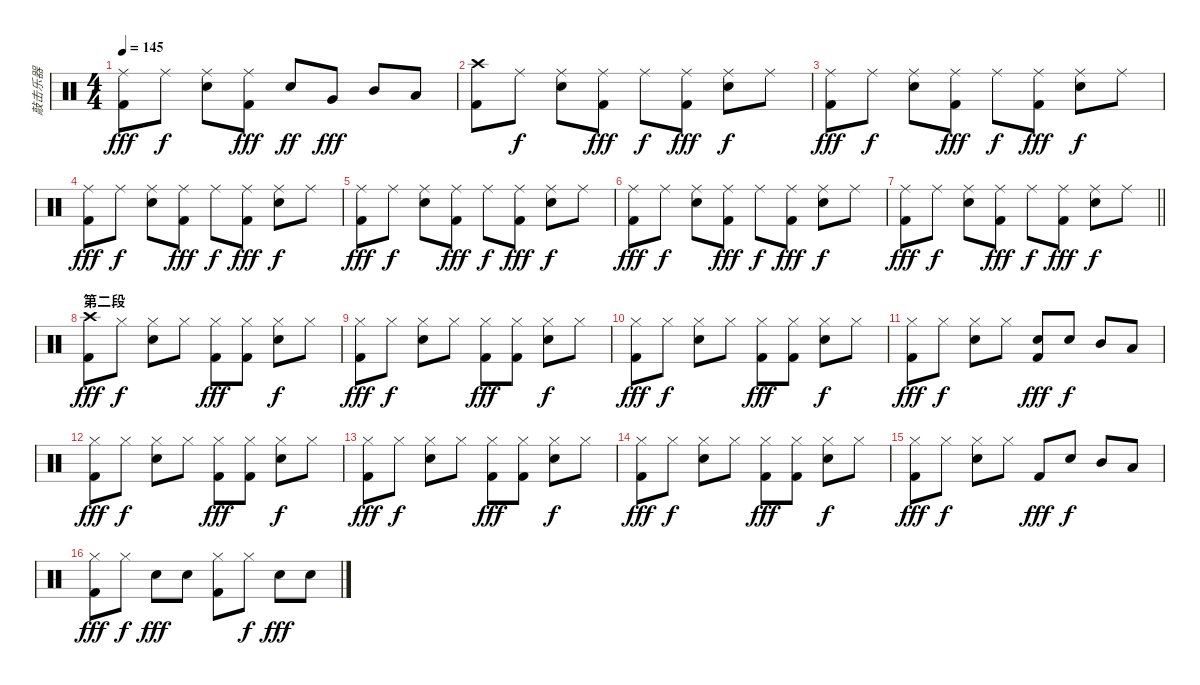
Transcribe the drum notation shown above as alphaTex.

\track ("敲击乐器" "敲击乐器") {instrument percussion}
\staff {score}
\articulation defaults
\ts (4 4)
\tempo 145
\clef neutral
\ks c
("Ride (middle)" "Kick (hit) 2").8{dy fff} "Ride (middle)".8{dy f} ("Ride (middle)" "Electric Snare (hit)").8 ("Ride (middle)" "Kick (hit) 2").8{dy fff} "Electric Snare (hit)".8{dy ff} "Very Low Tom (hit)".8{dy fff} "Mid Tom (hit)".8 "Low Tom (hit)".8 |
("Crash high (hit)" "Kick (hit) 2").8 "Ride (middle)".8{dy f} ("Ride (middle)" "Electric Snare (hit)").8 ("Ride (middle)" "Kick (hit) 2").8{dy fff} "Ride (middle)".8{dy f} ("Ride (middle)" "Kick (hit) 2").8{dy fff} ("Ride (middle)" "Electric Snare (hit)").8{dy f} "Ride (middle)".8 |
("Ride (middle)" "Kick (hit) 2").8{dy fff} "Ride (middle)".8{dy f} ("Ride (middle)" "Electric Snare (hit)").8 ("Ride (middle)" "Kick (hit) 2").8{dy fff} "Ride (middle)".8{dy f} ("Ride (middle)" "Kick (hit) 2").8{dy fff} ("Ride (middle)" "Electric Snare (hit)").8{dy f} "Ride (middle)".8 |
("Ride (middle)" "Kick (hit) 2").8{dy fff} "Ride (middle)".8{dy f} ("Ride (middle)" "Electric Snare (hit)").8 ("Ride (middle)" "Kick (hit) 2").8{dy fff} "Ride (middle)".8{dy f} ("Ride (middle)" "Kick (hit) 2").8{dy fff} ("Ride (middle)" "Electric Snare (hit)").8{dy f} "Ride (middle)".8 |
("Ride (middle)" "Kick (hit) 2").8{dy fff} "Ride (middle)".8{dy f} ("Ride (middle)" "Electric Snare (hit)").8 ("Ride (middle)" "Kick (hit) 2").8{dy fff} "Ride (middle)".8{dy f} ("Ride (middle)" "Kick (hit) 2").8{dy fff} ("Ride (middle)" "Electric Snare (hit)").8{dy f} "Ride (middle)".8 |
("Ride (middle)" "Kick (hit) 2").8{dy fff} "Ride (middle)".8{dy f} ("Ride (middle)" "Electric Snare (hit)").8 ("Ride (middle)" "Kick (hit) 2").8{dy fff} "Ride (middle)".8{dy f} ("Ride (middle)" "Kick (hit) 2").8{dy fff} ("Ride (middle)" "Electric Snare (hit)").8{dy f} "Ride (middle)".8 |
\barLineRight lightlight
("Ride (middle)" "Kick (hit) 2").8{dy fff} "Ride (middle)".8{dy f} ("Ride (middle)" "Electric Snare (hit)").8 ("Ride (middle)" "Kick (hit) 2").8{dy fff} "Ride (middle)".8{dy f} ("Ride (middle)" "Kick (hit) 2").8{dy fff} ("Ride (middle)" "Electric Snare (hit)").8{dy f} "Ride (middle)".8 |
\section ("" "第二段")
("Crash high (hit)" "Kick (hit) 2").8{dy fff} "Hi-Hat (closed)".8{dy f} ("Hi-Hat (closed)" "Electric Snare (hit)").8 "Hi-Hat (closed)".8 ("Hi-Hat (closed)" "Kick (hit) 2").8{dy fff} ("Hi-Hat (closed)" "Kick (hit) 2").8 ("Hi-Hat (closed)" "Electric Snare (hit)").8{dy f} "Hi-Hat (closed)".8 |
("Hi-Hat (closed)" "Kick (hit) 2").8{dy fff} "Hi-Hat (closed)".8{dy f} ("Hi-Hat (closed)" "Electric Snare (hit)").8 "Hi-Hat (closed)".8 ("Hi-Hat (closed)" "Kick (hit) 2").8{dy fff} ("Hi-Hat (closed)" "Kick (hit) 2").8 ("Hi-Hat (closed)" "Electric Snare (hit)").8{dy f} "Hi-Hat (closed)".8 |
("Hi-Hat (closed)" "Kick (hit) 2").8{dy fff} "Hi-Hat (closed)".8{dy f} ("Hi-Hat (closed)" "Electric Snare (hit)").8 "Hi-Hat (closed)".8 ("Hi-Hat (closed)" "Kick (hit) 2").8{dy fff} ("Hi-Hat (closed)" "Kick (hit) 2").8 ("Hi-Hat (closed)" "Electric Snare (hit)").8{dy f} "Hi-Hat (closed)".8 |
("Hi-Hat (closed)" "Kick (hit) 2").8{dy fff} "Hi-Hat (closed)".8{dy f} ("Hi-Hat (closed)" "Electric Snare (hit)").8 "Hi-Hat (closed)".8 ("Electric Snare (hit)" "Kick (hit) 2").8{dy fff} "Electric Snare (hit)".8{dy f} "Mid Tom (hit)".8 "Low Tom (hit)".8 |
("Hi-Hat (closed)" "Kick (hit) 2").8{dy fff} "Hi-Hat (closed)".8{dy f} ("Hi-Hat (closed)" "Electric Snare (hit)").8 "Hi-Hat (closed)".8 ("Hi-Hat (closed)" "Kick (hit) 2").8{dy fff} ("Hi-Hat (closed)" "Kick (hit) 2").8 ("Hi-Hat (closed)" "Electric Snare (hit)").8{dy f} "Hi-Hat (closed)".8 |
("Hi-Hat (closed)" "Kick (hit) 2").8{dy fff} "Hi-Hat (closed)".8{dy f} ("Hi-Hat (closed)" "Electric Snare (hit)").8 "Hi-Hat (closed)".8 ("Hi-Hat (closed)" "Kick (hit) 2").8{dy fff} ("Hi-Hat (closed)" "Kick (hit) 2").8 ("Hi-Hat (closed)" "Electric Snare (hit)").8{dy f} "Hi-Hat (closed)".8 |
("Hi-Hat (closed)" "Kick (hit) 2").8{dy fff} "Hi-Hat (closed)".8{dy f} ("Hi-Hat (closed)" "Electric Snare (hit)").8 "Hi-Hat (closed)".8 ("Hi-Hat (closed)" "Kick (hit) 2").8{dy fff} ("Hi-Hat (closed)" "Kick (hit) 2").8 ("Hi-Hat (closed)" "Electric Snare (hit)").8{dy f} "Hi-Hat (closed)".8 |
("Hi-Hat (closed)" "Kick (hit) 2").8{dy fff} "Hi-Hat (closed)".8{dy f} ("Hi-Hat (closed)" "Electric Snare (hit)").8 "Hi-Hat (closed)".8 "Kick (hit) 2".8{dy fff} "Electric Snare (hit)".8{dy f} "Mid Tom (hit)".8 "Low Tom (hit)".8 |
("Hi-Hat (closed)" "Kick (hit) 2").8{dy fff} "Hi-Hat (closed)".8{dy f} "Electric Snare (hit)".8{dy fff} "Electric Snare (hit)".8 ("Hi-Hat (closed)" "Kick (hit) 2").8 "Hi-Hat (closed)".8{dy f} "Electric Snare (hit)".8{dy fff} "Electric Snare (hit)".8
